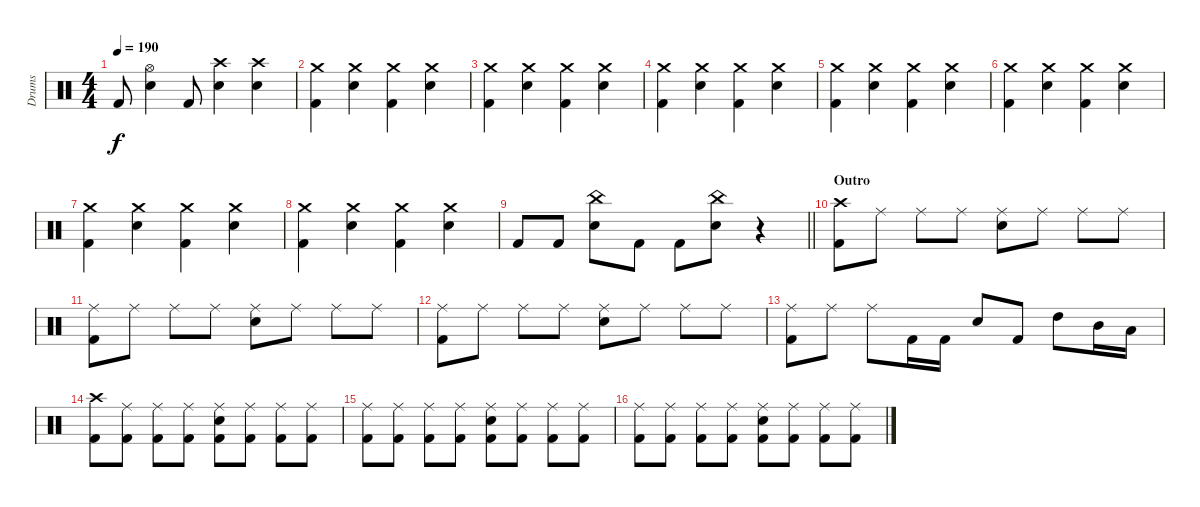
\track ("Drums" "Drums") {instrument percussion}
\staff {score}
\articulation defaults
\ts (4 4)
\tempo 190
\clef neutral
\ks c "Kick (hit) 2".8{dy f}
("Hi-Hat (open)" "Electric Snare (hit)").4 "Kick (hit) 2".8 ("Crash high (hit)" "Electric Snare (hit)").4 ("Crash high (hit)" "Electric Snare (hit)").4 |
("Crash medium (hit)" "Kick (hit) 2").4 ("Crash medium (hit)" "Electric Snare (hit)").4 ("Crash medium (hit)" "Kick (hit) 2").4 ("Crash medium (hit)" "Electric Snare (hit)").4 |
("Crash medium (hit)" "Kick (hit) 2").4 ("Crash medium (hit)" "Electric Snare (hit)").4 ("Crash medium (hit)" "Kick (hit) 2").4 ("Crash medium (hit)" "Electric Snare (hit)").4 |
("Crash medium (hit)" "Kick (hit) 2").4 ("Crash medium (hit)" "Electric Snare (hit)").4 ("Crash medium (hit)" "Kick (hit) 2").4 ("Crash medium (hit)" "Electric Snare (hit)").4 |
("Crash medium (hit)" "Kick (hit) 2").4 ("Crash medium (hit)" "Electric Snare (hit)").4 ("Crash medium (hit)" "Kick (hit) 2").4 ("Crash medium (hit)" "Electric Snare (hit)").4 |
("Crash medium (hit)" "Kick (hit) 2").4 ("Crash medium (hit)" "Electric Snare (hit)").4 ("Crash medium (hit)" "Kick (hit) 2").4 ("Crash medium (hit)" "Electric Snare (hit)").4 |
("Crash medium (hit)" "Kick (hit) 2").4 ("Crash medium (hit)" "Electric Snare (hit)").4 ("Crash medium (hit)" "Kick (hit) 2").4 ("Crash medium (hit)" "Electric Snare (hit)").4 |
("Crash medium (hit)" "Kick (hit) 2").4 ("Crash medium (hit)" "Electric Snare (hit)").4 ("Crash medium (hit)" "Kick (hit) 2").4 ("Crash medium (hit)" "Electric Snare (hit)").4 |
\barLineRight lightlight "Kick (hit) 2".8 "Kick (hit) 2".8
("China (hit)" "Electric Snare (hit)").8 "Kick (hit) 2".8 "Kick (hit) 2".8 ("China (hit)" "Electric Snare (hit)").8 r.4 |
\section ("" "Outro")
("Crash high (hit)" "Kick (hit) 2").8 "Ride (middle)".8 "Ride (middle)".8 "Ride (middle)".8 ("Ride (middle)" "Electric Snare (hit)").8 "Ride (middle)".8 "Ride (middle)".8 "Ride (middle)".8 |
("Ride (middle)" "Kick (hit) 2").8 "Ride (middle)".8 "Ride (middle)".8 "Ride (middle)".8 ("Ride (middle)" "Electric Snare (hit)").8 "Ride (middle)".8 "Ride (middle)".8 "Ride (middle)".8 |
("Ride (middle)" "Kick (hit) 2").8 "Ride (middle)".8 "Ride (middle)".8 "Ride (middle)".8 ("Ride (middle)" "Electric Snare (hit)").8 "Ride (middle)".8 "Ride (middle)".8 "Ride (middle)".8 |
("Ride (middle)" "Kick (hit) 2").8 "Ride (middle)".8 "Ride (middle)".8 "Kick (hit) 2".16 "Kick (hit) 2".16 "Electric Snare (hit)".8 "Kick (hit) 2".8 "High Tom (hit)".8 "Mid Tom (hit)".16 "Low Tom (hit)".16 |
("Crash high (hit)" "Kick (hit) 2").8 ("Ride (middle)" "Kick (hit) 2").8 ("Ride (middle)" "Kick (hit) 2").8 ("Ride (middle)" "Kick (hit) 2").8 ("Ride (middle)" "Electric Snare (hit)" "Kick (hit) 2").8 ("Ride (middle)" "Kick (hit) 2").8 ("Ride (middle)" "Kick (hit) 2").8 ("Ride (middle)" "Kick (hit) 2").8 |
("Ride (middle)" "Kick (hit) 2").8 ("Ride (middle)" "Kick (hit) 2").8 ("Ride (middle)" "Kick (hit) 2").8 ("Ride (middle)" "Kick (hit) 2").8 ("Ride (middle)" "Electric Snare (hit)" "Kick (hit) 2").8 ("Ride (middle)" "Kick (hit) 2").8 ("Ride (middle)" "Kick (hit) 2").8 ("Ride (middle)" "Kick (hit) 2").8 |
("Ride (middle)" "Kick (hit) 2").8 ("Ride (middle)" "Kick (hit) 2").8 ("Ride (middle)" "Kick (hit) 2").8 ("Ride (middle)" "Kick (hit) 2").8 ("Ride (middle)" "Electric Snare (hit)" "Kick (hit) 2").8 ("Ride (middle)" "Kick (hit) 2").8 ("Ride (middle)" "Kick (hit) 2").8 ("Ride (middle)" "Kick (hit) 2").8
